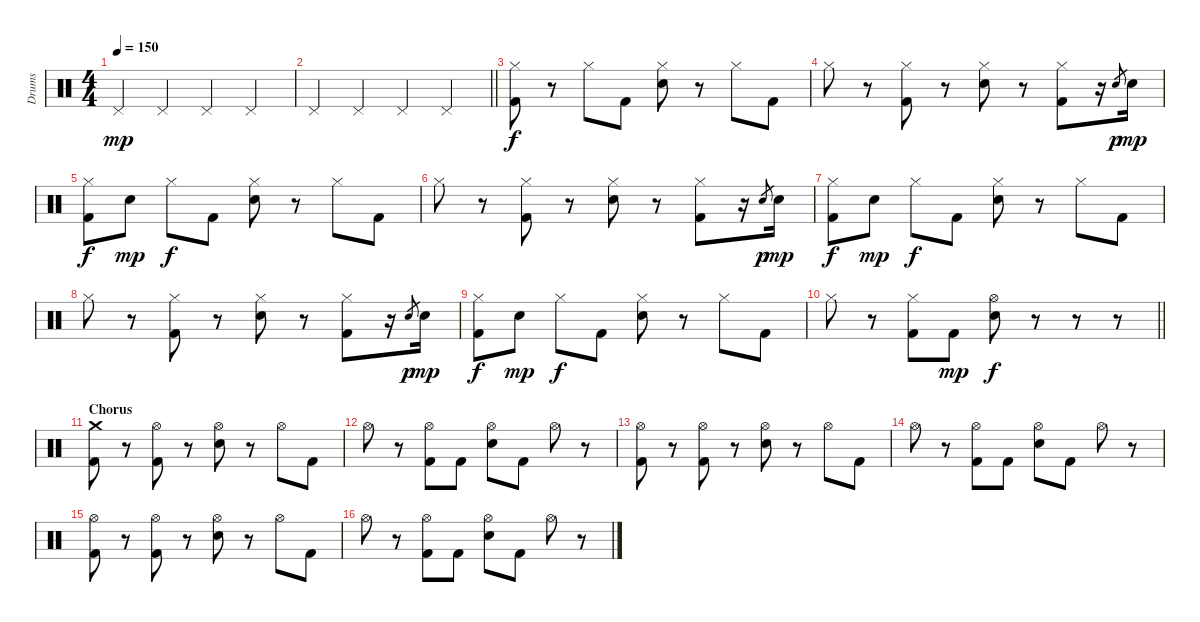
\track ("Drums" "Drums") {instrument percussion}
\staff {score}
\articulation defaults
\ts (4 4)
\tempo 150
\clef neutral
\ks c "Pedal Hi-Hat (hit)".4{dy mp} "Pedal Hi-Hat (hit)".4 "Pedal Hi-Hat (hit)".4 "Pedal Hi-Hat (hit)".4
|
\barLineRight lightlight "Pedal Hi-Hat (hit)".4 "Pedal Hi-Hat (hit)".4 "Pedal Hi-Hat (hit)".4 "Pedal Hi-Hat (hit)".4
|
("Hi-Hat (closed)" "Kick (hit) 2").8{dy f} r.8 "Hi-Hat (closed)".8 "Kick (hit) 2".8 ("Hi-Hat (closed)" "Snare (hit) 2").8 r.8 "Hi-Hat (closed)".8 "Kick (hit) 2".8 |
"Hi-Hat (closed)".8 r.8 ("Hi-Hat (closed)" "Kick (hit) 2").8 r.8 ("Hi-Hat (closed)" "Snare (hit) 2").8 r.8 ("Hi-Hat (closed)" "Kick (hit) 2").8 r.16 "Snare (hit)".8{gr dy p} "Snare (hit) 2".16{dy mp} |
("Hi-Hat (closed)" "Kick (hit) 2").8{dy f} "Snare (hit) 2".8{dy mp} "Hi-Hat (closed)".8{dy f} "Kick (hit) 2".8 ("Hi-Hat (closed)" "Snare (hit) 2").8 r.8 "Hi-Hat (closed)".8 "Kick (hit) 2".8 |
"Hi-Hat (closed)".8 r.8 ("Hi-Hat (closed)" "Kick (hit) 2").8 r.8 ("Hi-Hat (closed)" "Snare (hit) 2").8 r.8 ("Hi-Hat (closed)" "Kick (hit) 2").8 r.16 "Snare (hit)".8{gr dy p} "Snare (hit) 2".16{dy mp} |
("Hi-Hat (closed)" "Kick (hit) 2").8{dy f} "Snare (hit) 2".8{dy mp} "Hi-Hat (closed)".8{dy f} "Kick (hit) 2".8 ("Hi-Hat (closed)" "Snare (hit) 2").8 r.8 "Hi-Hat (closed)".8 "Kick (hit) 2".8 |
"Hi-Hat (closed)".8 r.8 ("Hi-Hat (closed)" "Kick (hit) 2").8 r.8 ("Hi-Hat (closed)" "Snare (hit) 2").8 r.8 ("Hi-Hat (closed)" "Kick (hit) 2").8 r.16 "Snare (hit)".8{gr dy p} "Snare (hit) 2".16{dy mp} |
("Hi-Hat (closed)" "Kick (hit) 2").8{dy f} "Snare (hit) 2".8{dy mp} "Hi-Hat (closed)".8{dy f} "Kick (hit) 2".8 ("Hi-Hat (closed)" "Snare (hit) 2").8 r.8 "Hi-Hat (closed)".8 "Kick (hit) 2".8 |
\barLineRight lightlight "Hi-Hat (closed)".8
r.8 ("Hi-Hat (closed)" "Kick (hit) 2").8 "Kick (hit) 2".8{dy mp} ("Hi-Hat (open)" "Snare (hit) 2").8{dy f} r.8 r.8 r.8 |
\section ("" "Chorus")
("Crash medium (hit)" "Kick (hit) 2").8 r.8 ("Hi-Hat (open)" "Kick (hit) 2").8 r.8 ("Hi-Hat (open)" "Snare (hit) 2").8 r.8 "Hi-Hat (open)".8 "Kick (hit) 2".8 |
"Hi-Hat (open)".8 r.8 ("Hi-Hat (open)" "Kick (hit) 2").8 "Kick (hit) 2".8 ("Hi-Hat (open)" "Snare (hit) 2").8 "Kick (hit) 2".8 "Hi-Hat (open)".8 r.8 |
("Hi-Hat (open)" "Kick (hit) 2").8 r.8 ("Hi-Hat (open)" "Kick (hit) 2").8 r.8 ("Hi-Hat (open)" "Snare (hit) 2").8 r.8 "Hi-Hat (open)".8 "Kick (hit) 2".8 |
"Hi-Hat (open)".8 r.8 ("Hi-Hat (open)" "Kick (hit) 2").8 "Kick (hit) 2".8 ("Hi-Hat (open)" "Snare (hit) 2").8 "Kick (hit) 2".8 "Hi-Hat (open)".8 r.8 |
("Hi-Hat (open)" "Kick (hit) 2").8 r.8 ("Hi-Hat (open)" "Kick (hit) 2").8 r.8 ("Hi-Hat (open)" "Snare (hit) 2").8 r.8 "Hi-Hat (open)".8 "Kick (hit) 2".8 |
"Hi-Hat (open)".8 r.8 ("Hi-Hat (open)" "Kick (hit) 2").8 "Kick (hit) 2".8 ("Hi-Hat (open)" "Snare (hit) 2").8 "Kick (hit) 2".8 "Hi-Hat (open)".8 r.8
